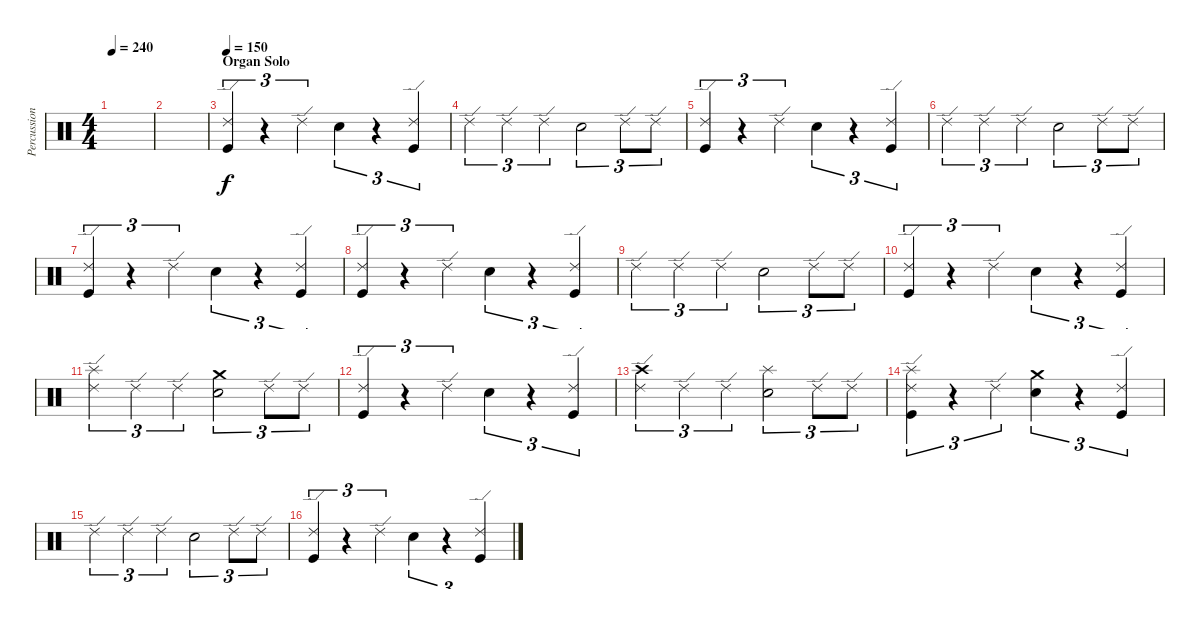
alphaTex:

\track ("Percussioni" "Percussion") {instrument percussion}
\staff {score}
\articulation defaults
\ts (4 4)
\tempo 240
\clef neutral
\ks c
|
|
\section ("" "Organ Solo")
\tempo 150
("Ride (edge) 2" "Kick (hit)").4{tu (3 2)} r.4{tu (3 2)} "Ride (edge) 2".4{tu (3 2)} "Electric Snare (hit)".4{tu (3 2)} r.4{tu (3 2)} ("Ride (edge) 2" "Kick (hit)").4{tu (3 2)} |
"Ride (edge) 2".4{tu (3 2)} "Ride (edge) 2".4{tu (3 2)} "Ride (edge) 2".4{tu (3 2)} "Electric Snare (hit)".2{tu (3 2)} "Ride (edge) 2".8{tu (3 2)} "Ride (edge) 2".8{tu (3 2)} |
("Ride (edge) 2" "Kick (hit)").4{tu (3 2)} r.4{tu (3 2)} "Ride (edge) 2".4{tu (3 2)} "Electric Snare (hit)".4{tu (3 2)} r.4{tu (3 2)} ("Ride (edge) 2" "Kick (hit)").4{tu (3 2)} |
"Ride (edge) 2".4{tu (3 2)} "Ride (edge) 2".4{tu (3 2)} "Ride (edge) 2".4{tu (3 2)} "Electric Snare (hit)".2{tu (3 2)} "Ride (edge) 2".8{tu (3 2)} "Ride (edge) 2".8{tu (3 2)} |
("Ride (edge) 2" "Kick (hit)").4{tu (3 2)} r.4{tu (3 2)} "Ride (edge) 2".4{tu (3 2)} "Electric Snare (hit)".4{tu (3 2)} r.4{tu (3 2)} ("Ride (edge) 2" "Kick (hit)").4{tu (3 2)} |
("Ride (edge) 2" "Kick (hit)").4{tu (3 2)} r.4{tu (3 2)} "Ride (edge) 2".4{tu (3 2)} "Electric Snare (hit)".4{tu (3 2)} r.4{tu (3 2)} ("Ride (edge) 2" "Kick (hit)").4{tu (3 2)} |
"Ride (edge) 2".4{tu (3 2)} "Ride (edge) 2".4{tu (3 2)} "Ride (edge) 2".4{tu (3 2)} "Electric Snare (hit)".2{tu (3 2)} "Ride (edge) 2".8{tu (3 2)} "Ride (edge) 2".8{tu (3 2)} |
("Ride (edge) 2" "Kick (hit)").4{tu (3 2)} r.4{tu (3 2)} "Ride (edge) 2".4{tu (3 2)} "Electric Snare (hit)".4{tu (3 2)} r.4{tu (3 2)} ("Ride (edge) 2" "Kick (hit)").4{tu (3 2)} |
("Ride (edge) 2" "Splash (hit)").4{tu (3 2)} "Ride (edge) 2".4{tu (3 2)} "Ride (edge) 2".4{tu (3 2)} ("Crash medium (hit)" "Electric Snare (hit)").2{tu (3 2)} "Ride (edge) 2".8{tu (3 2)} "Ride (edge) 2".8{tu (3 2)} |
("Ride (edge) 2" "Kick (hit)").4{tu (3 2)} r.4{tu (3 2)} "Ride (edge) 2".4{tu (3 2)} "Electric Snare (hit)".4{tu (3 2)} r.4{tu (3 2)} ("Ride (edge) 2" "Kick (hit)").4{tu (3 2)} |
("Ride (edge) 2" "Crash high (hit)").4{tu (3 2)} "Ride (edge) 2".4{tu (3 2)} "Ride (edge) 2".4{tu (3 2)} ("Splash (hit)" "Electric Snare (hit)").2{tu (3 2)} "Ride (edge) 2".8{tu (3 2)} "Ride (edge) 2".8{tu (3 2)} |
("Ride (edge) 2" "Splash (hit)" "Kick (hit)").4{tu (3 2)} r.4{tu (3 2)} "Ride (edge) 2".4{tu (3 2)} ("Crash medium (hit)" "Electric Snare (hit)").4{tu (3 2)} r.4{tu (3 2)} ("Ride (edge) 2" "Kick (hit)").4{tu (3 2)} |
"Ride (edge) 2".4{tu (3 2)} "Ride (edge) 2".4{tu (3 2)} "Ride (edge) 2".4{tu (3 2)} "Electric Snare (hit)".2{tu (3 2)} "Ride (edge) 2".8{tu (3 2)} "Ride (edge) 2".8{tu (3 2)} |
("Ride (edge) 2" "Kick (hit)").4{tu (3 2)} r.4{tu (3 2)} "Ride (edge) 2".4{tu (3 2)} "Electric Snare (hit)".4{tu (3 2)} r.4{tu (3 2)} ("Ride (edge) 2" "Kick (hit)").4{tu (3 2)}
